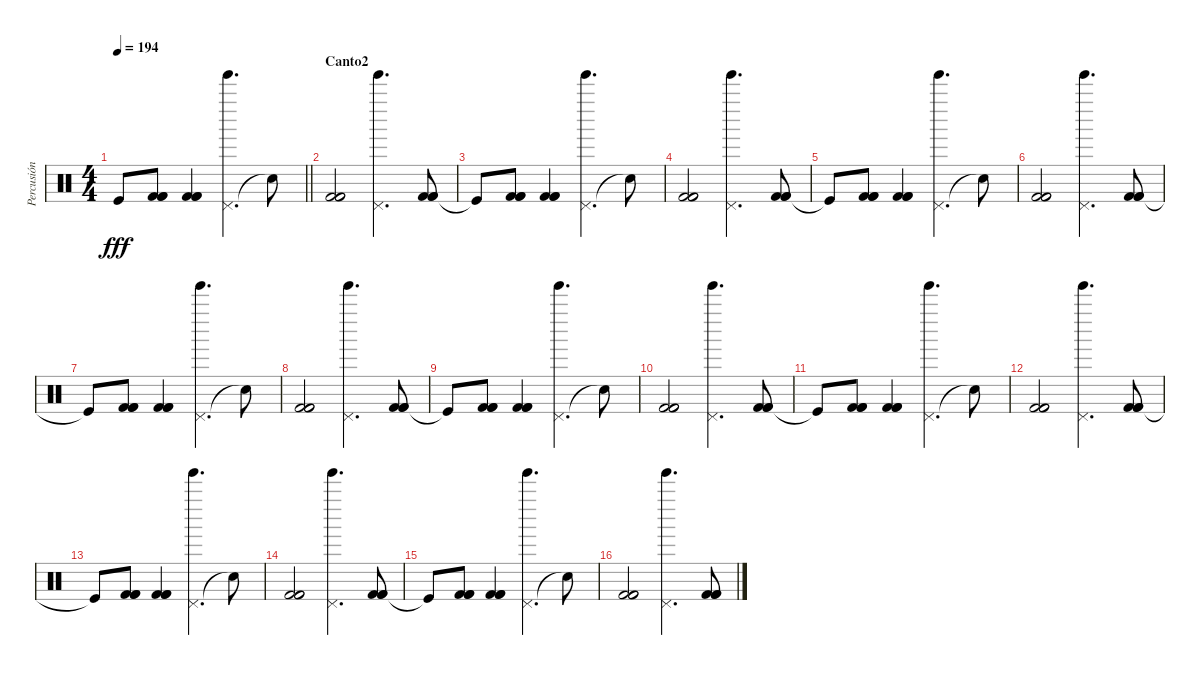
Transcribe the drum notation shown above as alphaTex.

\track ("Percusión" "Percusión") {instrument percussion}
\staff {score}
\articulation defaults
\ts (4 4)
\tempo 194
\clef neutral
\barLineRight lightlight
\ks c "Kick (hit)"{t}.8{dy fff}
("Kick (hit) 2" "Kick (hit) 2" "Kick (hit) 2").8 ("Kick (hit) 2" "Kick (hit) 2" "Kick (hit) 2").4 ("Pedal Hi-Hat (hit)" "Tinkle Bell (hit)").4{d} "Snare (hit)"{t}.8 |
\section ("" "Canto2")
("Kick (hit) 2" "Kick (hit) 2" "Kick (hit) 2").2 ("Pedal Hi-Hat (hit)" "Tinkle Bell (hit)").4{d} ("Kick (hit) 2" "Kick (hit) 2" "Kick (hit) 2").8 |
"Kick (hit)"{t}.8 ("Kick (hit) 2" "Kick (hit) 2" "Kick (hit) 2").8 ("Kick (hit) 2" "Kick (hit) 2" "Kick (hit) 2").4 ("Pedal Hi-Hat (hit)" "Tinkle Bell (hit)").4{d} "Snare (hit)"{t}.8 |
("Kick (hit) 2" "Kick (hit) 2" "Kick (hit) 2").2 ("Pedal Hi-Hat (hit)" "Tinkle Bell (hit)").4{d} ("Kick (hit) 2" "Kick (hit) 2" "Kick (hit) 2").8 |
"Kick (hit)"{t}.8 ("Kick (hit) 2" "Kick (hit) 2" "Kick (hit) 2").8 ("Kick (hit) 2" "Kick (hit) 2" "Kick (hit) 2").4 ("Pedal Hi-Hat (hit)" "Tinkle Bell (hit)").4{d} "Snare (hit)"{t}.8 |
("Kick (hit) 2" "Kick (hit) 2" "Kick (hit) 2").2 ("Pedal Hi-Hat (hit)" "Tinkle Bell (hit)").4{d} ("Kick (hit) 2" "Kick (hit) 2" "Kick (hit) 2").8 |
"Kick (hit)"{t}.8 ("Kick (hit) 2" "Kick (hit) 2" "Kick (hit) 2").8 ("Kick (hit) 2" "Kick (hit) 2" "Kick (hit) 2").4 ("Pedal Hi-Hat (hit)" "Tinkle Bell (hit)").4{d} "Snare (hit)"{t}.8 |
("Kick (hit) 2" "Kick (hit) 2" "Kick (hit) 2").2 ("Pedal Hi-Hat (hit)" "Tinkle Bell (hit)").4{d} ("Kick (hit) 2" "Kick (hit) 2" "Kick (hit) 2").8 |
"Kick (hit)"{t}.8 ("Kick (hit) 2" "Kick (hit) 2" "Kick (hit) 2").8 ("Kick (hit) 2" "Kick (hit) 2" "Kick (hit) 2").4 ("Pedal Hi-Hat (hit)" "Tinkle Bell (hit)").4{d} "Snare (hit)"{t}.8 |
("Kick (hit) 2" "Kick (hit) 2" "Kick (hit) 2").2 ("Pedal Hi-Hat (hit)" "Tinkle Bell (hit)").4{d} ("Kick (hit) 2" "Kick (hit) 2" "Kick (hit) 2").8 |
"Kick (hit)"{t}.8 ("Kick (hit) 2" "Kick (hit) 2" "Kick (hit) 2").8 ("Kick (hit) 2" "Kick (hit) 2" "Kick (hit) 2").4 ("Pedal Hi-Hat (hit)" "Tinkle Bell (hit)").4{d} "Snare (hit)"{t}.8 |
("Kick (hit) 2" "Kick (hit) 2" "Kick (hit) 2").2 ("Pedal Hi-Hat (hit)" "Tinkle Bell (hit)").4{d} ("Kick (hit) 2" "Kick (hit) 2" "Kick (hit) 2").8 |
"Kick (hit)"{t}.8 ("Kick (hit) 2" "Kick (hit) 2" "Kick (hit) 2").8 ("Kick (hit) 2" "Kick (hit) 2" "Kick (hit) 2").4 ("Pedal Hi-Hat (hit)" "Tinkle Bell (hit)").4{d} "Snare (hit)"{t}.8 |
("Kick (hit) 2" "Kick (hit) 2" "Kick (hit) 2").2 ("Pedal Hi-Hat (hit)" "Tinkle Bell (hit)").4{d} ("Kick (hit) 2" "Kick (hit) 2" "Kick (hit) 2").8 |
"Kick (hit)"{t}.8 ("Kick (hit) 2" "Kick (hit) 2" "Kick (hit) 2").8 ("Kick (hit) 2" "Kick (hit) 2" "Kick (hit) 2").4 ("Pedal Hi-Hat (hit)" "Tinkle Bell (hit)").4{d} "Snare (hit)"{t}.8 |
("Kick (hit) 2" "Kick (hit) 2" "Kick (hit) 2").2 ("Pedal Hi-Hat (hit)" "Tinkle Bell (hit)").4{d} ("Kick (hit) 2" "Kick (hit) 2" "Kick (hit) 2").8
